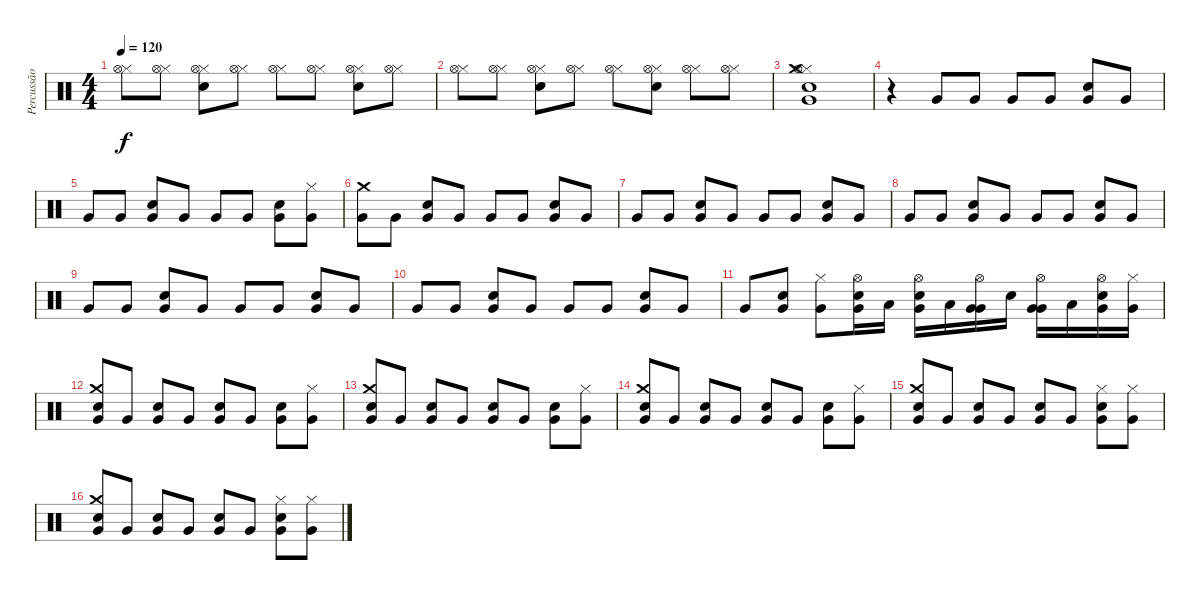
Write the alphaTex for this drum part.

\track ("Percussão" "Percussão") {instrument percussion}
\staff {score}
\articulation defaults
\ts (4 4)
\tempo 120
\clef neutral
\ks c
("Hi-Hat (closed)" "Hi-Hat (open)").8{dy f} ("Hi-Hat (closed)" "Hi-Hat (open)").8 ("Hi-Hat (closed)" "Hi-Hat (open)" "Snare (hit) 2").8 ("Hi-Hat (closed)" "Hi-Hat (open)").8 ("Hi-Hat (closed)" "Hi-Hat (open)").8 ("Hi-Hat (closed)" "Hi-Hat (open)").8 ("Hi-Hat (closed)" "Hi-Hat (open)" "Snare (hit) 2").8 ("Hi-Hat (closed)" "Hi-Hat (open)").8 |
("Hi-Hat (closed)" "Hi-Hat (open)").8 ("Hi-Hat (closed)" "Hi-Hat (open)").8 ("Hi-Hat (closed)" "Hi-Hat (open)" "Snare (hit) 2").8 ("Hi-Hat (closed)" "Hi-Hat (open)").8 ("Hi-Hat (closed)" "Hi-Hat (open)").8 ("Hi-Hat (closed)" "Hi-Hat (open)" "Snare (hit) 2").8 ("Hi-Hat (closed)" "Hi-Hat (open)").8 ("Hi-Hat (closed)" "Hi-Hat (open)").8 |
("Hi-Hat (closed)" "Hi-Hat (open)" "Crash medium (hit)" "Very Low Tom (hit)" "Snare (hit) 2").1 |
r.4 "Very Low Tom (hit)".8{volume 12 balance 3} "Very Low Tom (hit)".8 "Very Low Tom (hit)".8 "Very Low Tom (hit)".8 ("Very Low Tom (hit)" "Snare (hit) 2").8 "Very Low Tom (hit)".8 |
"Very Low Tom (hit)".8 "Very Low Tom (hit)".8 ("Very Low Tom (hit)" "Snare (hit) 2").8 "Very Low Tom (hit)".8 "Very Low Tom (hit)".8 "Very Low Tom (hit)".8 ("Very Low Tom (hit)" "Snare (hit) 2").8 ("Very Low Tom (hit)" "Hi-Hat (closed)").8 |
("Very Low Tom (hit)" "Crash medium (hit)").8 "Very Low Tom (hit)".8 ("Very Low Tom (hit)" "Snare (hit) 2").8 "Very Low Tom (hit)".8 "Very Low Tom (hit)".8 "Very Low Tom (hit)".8 ("Very Low Tom (hit)" "Snare (hit) 2").8 "Very Low Tom (hit)".8 |
"Very Low Tom (hit)".8 "Very Low Tom (hit)".8 ("Very Low Tom (hit)" "Snare (hit) 2").8 "Very Low Tom (hit)".8 "Very Low Tom (hit)".8 "Very Low Tom (hit)".8 ("Very Low Tom (hit)" "Snare (hit) 2").8 "Very Low Tom (hit)".8 |
"Very Low Tom (hit)".8 "Very Low Tom (hit)".8 ("Very Low Tom (hit)" "Snare (hit) 2").8 "Very Low Tom (hit)".8 "Very Low Tom (hit)".8 "Very Low Tom (hit)".8 ("Very Low Tom (hit)" "Snare (hit) 2").8 "Very Low Tom (hit)".8 |
"Very Low Tom (hit)".8 "Very Low Tom (hit)".8 ("Very Low Tom (hit)" "Snare (hit) 2").8 "Very Low Tom (hit)".8 "Very Low Tom (hit)".8 "Very Low Tom (hit)".8 ("Very Low Tom (hit)" "Snare (hit) 2").8 "Very Low Tom (hit)".8 |
"Very Low Tom (hit)".8 "Very Low Tom (hit)".8 ("Very Low Tom (hit)" "Snare (hit) 2").8 "Very Low Tom (hit)".8 "Very Low Tom (hit)".8 "Very Low Tom (hit)".8 ("Very Low Tom (hit)" "Snare (hit) 2").8 "Very Low Tom (hit)".8 |
"Very Low Tom (hit)".8 ("Very Low Tom (hit)" "Snare (hit) 2").8 ("Very Low Tom (hit)" "Hi-Hat (closed)").8 ("Very Low Tom (hit)" "Snare (hit) 2" "Hi-Hat (open)").16 "Low Floor Tom (hit)".16 ("Very Low Tom (hit)" "Snare (hit) 2" "Hi-Hat (open)").16 "Low Floor Tom (hit)".16 ("Very Low Tom (hit)" "Very Low Tom (hit)" "Hi-Hat (open)").16 "Snare (hit) 2".16 ("Very Low Tom (hit)" "Very Low Tom (hit)" "Hi-Hat (open)").16 "Low Tom (hit)".16 ("Very Low Tom (hit)" "Snare (hit) 2" "Hi-Hat (open)").16 ("Very Low Tom (hit)" "Hi-Hat (closed)").16 |
("Very Low Tom (hit)" "Crash medium (hit)" "Snare (hit) 2").8 "Very Low Tom (hit)".8 ("Very Low Tom (hit)" "Snare (hit) 2").8 "Very Low Tom (hit)".8 ("Very Low Tom (hit)" "Snare (hit) 2").8 "Very Low Tom (hit)".8 ("Very Low Tom (hit)" "Snare (hit) 2").8 ("Very Low Tom (hit)" "Hi-Hat (closed)").8 |
("Very Low Tom (hit)" "Crash medium (hit)" "Snare (hit) 2").8 "Very Low Tom (hit)".8 ("Very Low Tom (hit)" "Snare (hit) 2").8 "Very Low Tom (hit)".8 ("Very Low Tom (hit)" "Snare (hit) 2").8 "Very Low Tom (hit)".8 ("Very Low Tom (hit)" "Snare (hit) 2").8 ("Very Low Tom (hit)" "Hi-Hat (closed)").8 |
("Very Low Tom (hit)" "Crash medium (hit)" "Snare (hit) 2").8 "Very Low Tom (hit)".8 ("Very Low Tom (hit)" "Snare (hit) 2").8 "Very Low Tom (hit)".8 ("Very Low Tom (hit)" "Snare (hit) 2").8 "Very Low Tom (hit)".8 ("Very Low Tom (hit)" "Snare (hit) 2").8 ("Very Low Tom (hit)" "Hi-Hat (closed)").8 |
("Very Low Tom (hit)" "Crash medium (hit)" "Snare (hit) 2").8 "Very Low Tom (hit)".8 ("Very Low Tom (hit)" "Snare (hit) 2").8 "Very Low Tom (hit)".8 ("Very Low Tom (hit)" "Snare (hit) 2").8 "Very Low Tom (hit)".8 ("Very Low Tom (hit)" "Hi-Hat (closed)" "Snare (hit) 2").8 ("Very Low Tom (hit)" "Hi-Hat (closed)").8 |
("Very Low Tom (hit)" "Crash medium (hit)" "Snare (hit) 2").8 "Very Low Tom (hit)".8 ("Very Low Tom (hit)" "Snare (hit) 2").8 "Very Low Tom (hit)".8 ("Very Low Tom (hit)" "Snare (hit) 2").8 "Very Low Tom (hit)".8 ("Very Low Tom (hit)" "Hi-Hat (closed)" "Snare (hit) 2").8 ("Very Low Tom (hit)" "Hi-Hat (closed)").8
